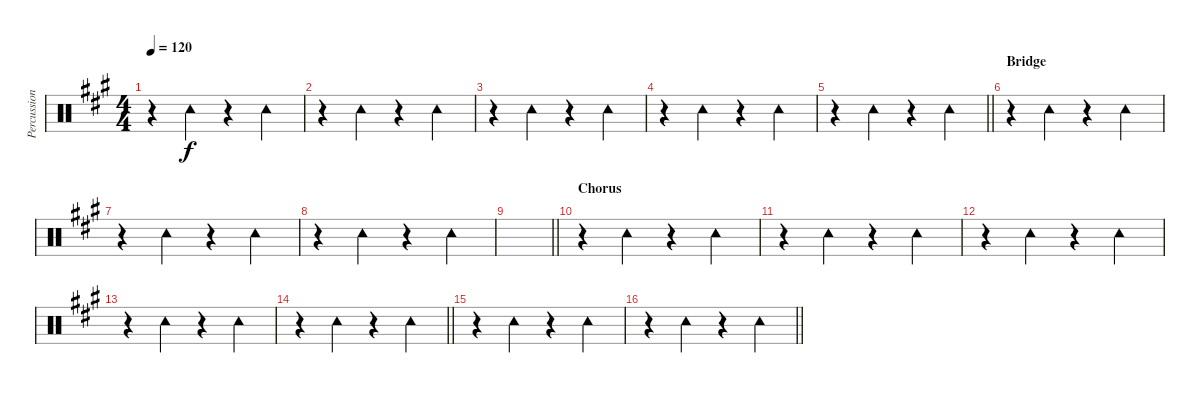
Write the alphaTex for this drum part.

\track ("Percussion" "Percussion") {instrument percussion}
\staff {score}
\articulation defaults
\ts (4 4)
\tempo 120
\clef neutral
\ks a
r.4{dy f} "Tambourine (hit)".4 r.4 "Tambourine (hit)".4 |
r.4 "Tambourine (hit)".4 r.4 "Tambourine (hit)".4 |
r.4 "Tambourine (hit)".4 r.4 "Tambourine (hit)".4 |
r.4 "Tambourine (hit)".4 r.4 "Tambourine (hit)".4 |
\barLineRight lightlight
r.4 "Tambourine (hit)".4 r.4 "Tambourine (hit)".4 |
\section ("" "Bridge")
r.4 "Tambourine (hit)".4 r.4 "Tambourine (hit)".4 |
r.4 "Tambourine (hit)".4 r.4 "Tambourine (hit)".4 |
r.4 "Tambourine (hit)".4 r.4 "Tambourine (hit)".4 |
\barLineRight lightlight
|
\section ("" "Chorus")
r.4 "Tambourine (hit)".4 r.4 "Tambourine (hit)".4 |
r.4 "Tambourine (hit)".4 r.4 "Tambourine (hit)".4 |
r.4 "Tambourine (hit)".4 r.4 "Tambourine (hit)".4 |
r.4 "Tambourine (hit)".4 r.4 "Tambourine (hit)".4 |
\barLineRight lightlight
r.4 "Tambourine (hit)".4 r.4 "Tambourine (hit)".4 |
r.4 "Tambourine (hit)".4 r.4 "Tambourine (hit)".4 |
\barLineRight lightlight
r.4 "Tambourine (hit)".4 r.4 "Tambourine (hit)".4
